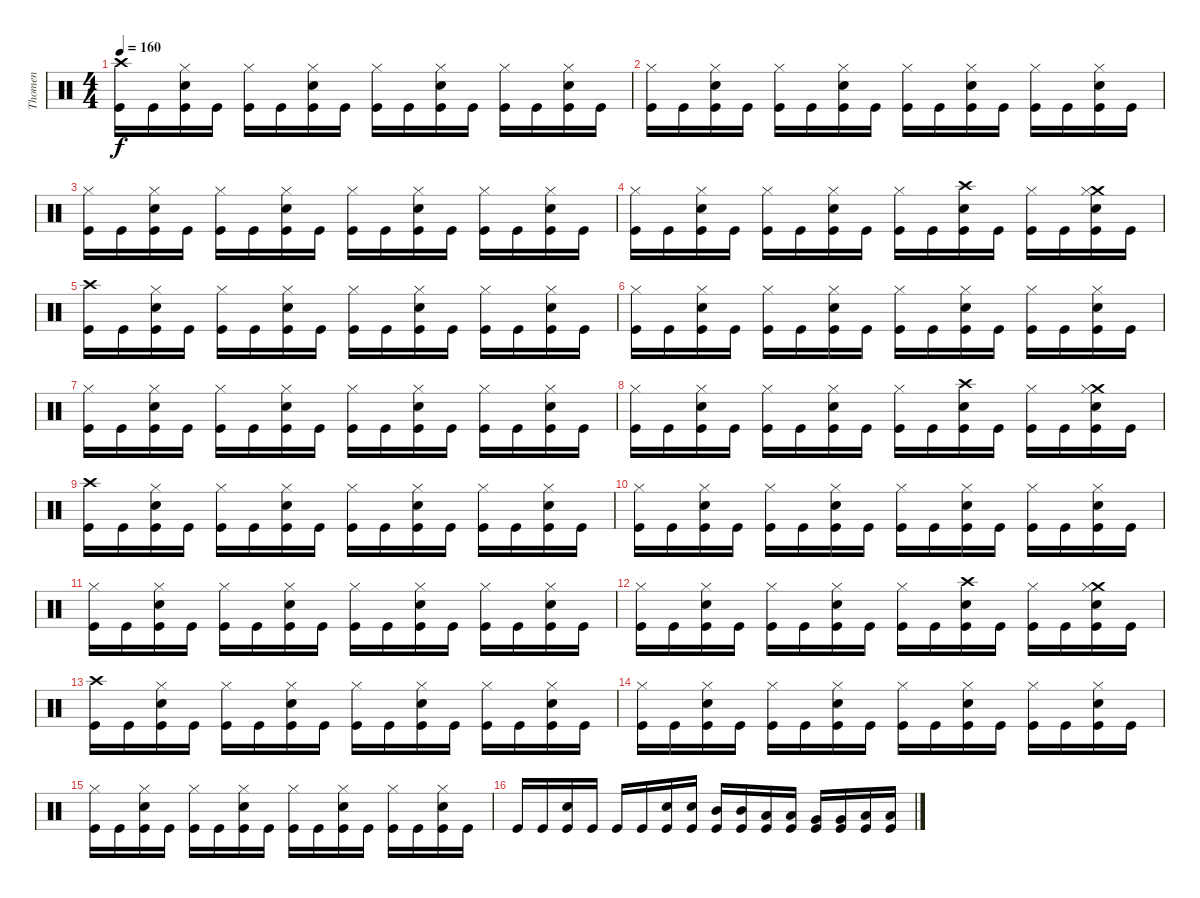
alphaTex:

\track ("Thomen" "Thomen") {instrument percussion}
\staff {score}
\articulation defaults
\ts (4 4)
\tempo 160
\clef neutral
\ks c
("Crash high (hit)" "Kick (hit)").16{dy f} "Kick (hit)".16 ("Hi-Hat (closed)" "Snare (hit) 2" "Kick (hit)").16 "Kick (hit)".16 ("Hi-Hat (closed)" "Kick (hit)").16 "Kick (hit)".16 ("Hi-Hat (closed)" "Snare (hit) 2" "Kick (hit)").16 "Kick (hit)".16 ("Hi-Hat (closed)" "Kick (hit)").16 "Kick (hit)".16 ("Hi-Hat (closed)" "Snare (hit) 2" "Kick (hit)").16 "Kick (hit)".16 ("Hi-Hat (closed)" "Kick (hit)").16 "Kick (hit)".16 ("Hi-Hat (closed)" "Snare (hit) 2" "Kick (hit)").16 "Kick (hit)".16 |
("Hi-Hat (closed)" "Kick (hit)").16 "Kick (hit)".16 ("Hi-Hat (closed)" "Snare (hit) 2" "Kick (hit)").16 "Kick (hit)".16 ("Hi-Hat (closed)" "Kick (hit)").16 "Kick (hit)".16 ("Hi-Hat (closed)" "Snare (hit) 2" "Kick (hit)").16 "Kick (hit)".16 ("Hi-Hat (closed)" "Kick (hit)").16 "Kick (hit)".16 ("Hi-Hat (closed)" "Snare (hit) 2" "Kick (hit)").16 "Kick (hit)".16 ("Hi-Hat (closed)" "Kick (hit)").16 "Kick (hit)".16 ("Hi-Hat (closed)" "Snare (hit) 2" "Kick (hit)").16 "Kick (hit)".16 |
("Hi-Hat (closed)" "Kick (hit)").16 "Kick (hit)".16 ("Hi-Hat (closed)" "Snare (hit) 2" "Kick (hit)").16 "Kick (hit)".16 ("Hi-Hat (closed)" "Kick (hit)").16 "Kick (hit)".16 ("Hi-Hat (closed)" "Snare (hit) 2" "Kick (hit)").16 "Kick (hit)".16 ("Hi-Hat (closed)" "Kick (hit)").16 "Kick (hit)".16 ("Hi-Hat (closed)" "Snare (hit) 2" "Kick (hit)").16 "Kick (hit)".16 ("Hi-Hat (closed)" "Kick (hit)").16 "Kick (hit)".16 ("Hi-Hat (closed)" "Snare (hit) 2" "Kick (hit)").16 "Kick (hit)".16 |
("Hi-Hat (closed)" "Kick (hit)").16 "Kick (hit)".16 ("Hi-Hat (closed)" "Snare (hit) 2" "Kick (hit)").16 "Kick (hit)".16 ("Hi-Hat (closed)" "Kick (hit)").16 "Kick (hit)".16 ("Hi-Hat (closed)" "Snare (hit) 2" "Kick (hit)").16 "Kick (hit)".16 ("Hi-Hat (closed)" "Kick (hit)").16 "Kick (hit)".16 ("Crash high (hit)" "Snare (hit) 2" "Kick (hit)").16 "Kick (hit)".16 ("Hi-Hat (closed)" "Kick (hit)").16 "Kick (hit)".16 ("Crash medium (hit)" "Hi-Hat (closed)" "Snare (hit) 2" "Kick (hit)").16 "Kick (hit)".16 |
("Crash high (hit)" "Kick (hit)").16 "Kick (hit)".16 ("Hi-Hat (closed)" "Snare (hit) 2" "Kick (hit)").16 "Kick (hit)".16 ("Hi-Hat (closed)" "Kick (hit)").16 "Kick (hit)".16 ("Hi-Hat (closed)" "Snare (hit) 2" "Kick (hit)").16 "Kick (hit)".16 ("Hi-Hat (closed)" "Kick (hit)").16 "Kick (hit)".16 ("Hi-Hat (closed)" "Snare (hit) 2" "Kick (hit)").16 "Kick (hit)".16 ("Hi-Hat (closed)" "Kick (hit)").16 "Kick (hit)".16 ("Hi-Hat (closed)" "Snare (hit) 2" "Kick (hit)").16 "Kick (hit)".16 |
("Hi-Hat (closed)" "Kick (hit)").16 "Kick (hit)".16 ("Hi-Hat (closed)" "Snare (hit) 2" "Kick (hit)").16 "Kick (hit)".16 ("Hi-Hat (closed)" "Kick (hit)").16 "Kick (hit)".16 ("Hi-Hat (closed)" "Snare (hit) 2" "Kick (hit)").16 "Kick (hit)".16 ("Hi-Hat (closed)" "Kick (hit)").16 "Kick (hit)".16 ("Hi-Hat (closed)" "Snare (hit) 2" "Kick (hit)").16 "Kick (hit)".16 ("Hi-Hat (closed)" "Kick (hit)").16 "Kick (hit)".16 ("Hi-Hat (closed)" "Snare (hit) 2" "Kick (hit)").16 "Kick (hit)".16 |
("Hi-Hat (closed)" "Kick (hit)").16 "Kick (hit)".16 ("Hi-Hat (closed)" "Snare (hit) 2" "Kick (hit)").16 "Kick (hit)".16 ("Hi-Hat (closed)" "Kick (hit)").16 "Kick (hit)".16 ("Hi-Hat (closed)" "Snare (hit) 2" "Kick (hit)").16 "Kick (hit)".16 ("Hi-Hat (closed)" "Kick (hit)").16 "Kick (hit)".16 ("Hi-Hat (closed)" "Snare (hit) 2" "Kick (hit)").16 "Kick (hit)".16 ("Hi-Hat (closed)" "Kick (hit)").16 "Kick (hit)".16 ("Hi-Hat (closed)" "Snare (hit) 2" "Kick (hit)").16 "Kick (hit)".16 |
("Hi-Hat (closed)" "Kick (hit)").16 "Kick (hit)".16 ("Hi-Hat (closed)" "Snare (hit) 2" "Kick (hit)").16 "Kick (hit)".16 ("Hi-Hat (closed)" "Kick (hit)").16 "Kick (hit)".16 ("Hi-Hat (closed)" "Snare (hit) 2" "Kick (hit)").16 "Kick (hit)".16 ("Hi-Hat (closed)" "Kick (hit)").16 "Kick (hit)".16 ("Crash high (hit)" "Snare (hit) 2" "Kick (hit)").16 "Kick (hit)".16 ("Hi-Hat (closed)" "Kick (hit)").16 "Kick (hit)".16 ("Crash medium (hit)" "Hi-Hat (closed)" "Snare (hit) 2" "Kick (hit)").16 "Kick (hit)".16 |
("Crash high (hit)" "Kick (hit)").16 "Kick (hit)".16 ("Hi-Hat (closed)" "Snare (hit) 2" "Kick (hit)").16 "Kick (hit)".16 ("Hi-Hat (closed)" "Kick (hit)").16 "Kick (hit)".16 ("Hi-Hat (closed)" "Snare (hit) 2" "Kick (hit)").16 "Kick (hit)".16 ("Hi-Hat (closed)" "Kick (hit)").16 "Kick (hit)".16 ("Hi-Hat (closed)" "Snare (hit) 2" "Kick (hit)").16 "Kick (hit)".16 ("Hi-Hat (closed)" "Kick (hit)").16 "Kick (hit)".16 ("Hi-Hat (closed)" "Snare (hit) 2" "Kick (hit)").16 "Kick (hit)".16 |
("Hi-Hat (closed)" "Kick (hit)").16 "Kick (hit)".16 ("Hi-Hat (closed)" "Snare (hit) 2" "Kick (hit)").16 "Kick (hit)".16 ("Hi-Hat (closed)" "Kick (hit)").16 "Kick (hit)".16 ("Hi-Hat (closed)" "Snare (hit) 2" "Kick (hit)").16 "Kick (hit)".16 ("Hi-Hat (closed)" "Kick (hit)").16 "Kick (hit)".16 ("Hi-Hat (closed)" "Snare (hit) 2" "Kick (hit)").16 "Kick (hit)".16 ("Hi-Hat (closed)" "Kick (hit)").16 "Kick (hit)".16 ("Hi-Hat (closed)" "Snare (hit) 2" "Kick (hit)").16 "Kick (hit)".16 |
("Hi-Hat (closed)" "Kick (hit)").16 "Kick (hit)".16 ("Hi-Hat (closed)" "Snare (hit) 2" "Kick (hit)").16 "Kick (hit)".16 ("Hi-Hat (closed)" "Kick (hit)").16 "Kick (hit)".16 ("Hi-Hat (closed)" "Snare (hit) 2" "Kick (hit)").16 "Kick (hit)".16 ("Hi-Hat (closed)" "Kick (hit)").16 "Kick (hit)".16 ("Hi-Hat (closed)" "Snare (hit) 2" "Kick (hit)").16 "Kick (hit)".16 ("Hi-Hat (closed)" "Kick (hit)").16 "Kick (hit)".16 ("Hi-Hat (closed)" "Snare (hit) 2" "Kick (hit)").16 "Kick (hit)".16 |
("Hi-Hat (closed)" "Kick (hit)").16 "Kick (hit)".16 ("Hi-Hat (closed)" "Snare (hit) 2" "Kick (hit)").16 "Kick (hit)".16 ("Hi-Hat (closed)" "Kick (hit)").16 "Kick (hit)".16 ("Hi-Hat (closed)" "Snare (hit) 2" "Kick (hit)").16 "Kick (hit)".16 ("Hi-Hat (closed)" "Kick (hit)").16 "Kick (hit)".16 ("Crash high (hit)" "Snare (hit) 2" "Kick (hit)").16 "Kick (hit)".16 ("Hi-Hat (closed)" "Kick (hit)").16 "Kick (hit)".16 ("Crash medium (hit)" "Hi-Hat (closed)" "Snare (hit) 2" "Kick (hit)").16 "Kick (hit)".16 |
("Crash high (hit)" "Kick (hit)").16 "Kick (hit)".16 ("Hi-Hat (closed)" "Snare (hit) 2" "Kick (hit)").16 "Kick (hit)".16 ("Hi-Hat (closed)" "Kick (hit)").16 "Kick (hit)".16 ("Hi-Hat (closed)" "Snare (hit) 2" "Kick (hit)").16 "Kick (hit)".16 ("Hi-Hat (closed)" "Kick (hit)").16 "Kick (hit)".16 ("Hi-Hat (closed)" "Snare (hit) 2" "Kick (hit)").16 "Kick (hit)".16 ("Hi-Hat (closed)" "Kick (hit)").16 "Kick (hit)".16 ("Hi-Hat (closed)" "Snare (hit) 2" "Kick (hit)").16 "Kick (hit)".16 |
("Hi-Hat (closed)" "Kick (hit)").16 "Kick (hit)".16 ("Hi-Hat (closed)" "Snare (hit) 2" "Kick (hit)").16 "Kick (hit)".16 ("Hi-Hat (closed)" "Kick (hit)").16 "Kick (hit)".16 ("Hi-Hat (closed)" "Snare (hit) 2" "Kick (hit)").16 "Kick (hit)".16 ("Hi-Hat (closed)" "Kick (hit)").16 "Kick (hit)".16 ("Hi-Hat (closed)" "Snare (hit) 2" "Kick (hit)").16 "Kick (hit)".16 ("Hi-Hat (closed)" "Kick (hit)").16 "Kick (hit)".16 ("Hi-Hat (closed)" "Snare (hit) 2" "Kick (hit)").16 "Kick (hit)".16 |
("Hi-Hat (closed)" "Kick (hit)").16 "Kick (hit)".16 ("Hi-Hat (closed)" "Snare (hit) 2" "Kick (hit)").16 "Kick (hit)".16 ("Hi-Hat (closed)" "Kick (hit)").16 "Kick (hit)".16 ("Hi-Hat (closed)" "Snare (hit) 2" "Kick (hit)").16 "Kick (hit)".16 ("Hi-Hat (closed)" "Kick (hit)").16 "Kick (hit)".16 ("Hi-Hat (closed)" "Snare (hit) 2" "Kick (hit)").16 "Kick (hit)".16 ("Hi-Hat (closed)" "Kick (hit)").16 "Kick (hit)".16 ("Hi-Hat (closed)" "Snare (hit) 2" "Kick (hit)").16 "Kick (hit)".16 |
"Kick (hit)".16 "Kick (hit)".16 ("Snare (hit) 2" "Kick (hit)").16 "Kick (hit)".16 "Kick (hit)".16 "Kick (hit)".16 ("Snare (hit) 2" "Kick (hit)").16 ("Snare (hit) 2" "Kick (hit)").16 ("Mid Tom (hit)" "Kick (hit)").16 ("Mid Tom (hit)" "Kick (hit)").16 ("Low Tom (hit)" "Kick (hit)").16 ("Low Tom (hit)" "Kick (hit)").16 ("Very Low Tom (hit)" "Kick (hit)").16 ("Very Low Tom (hit)" "Kick (hit)").16 ("Low Floor Tom (hit)" "Kick (hit)").16 ("Low Floor Tom (hit)" "Kick (hit)").16
